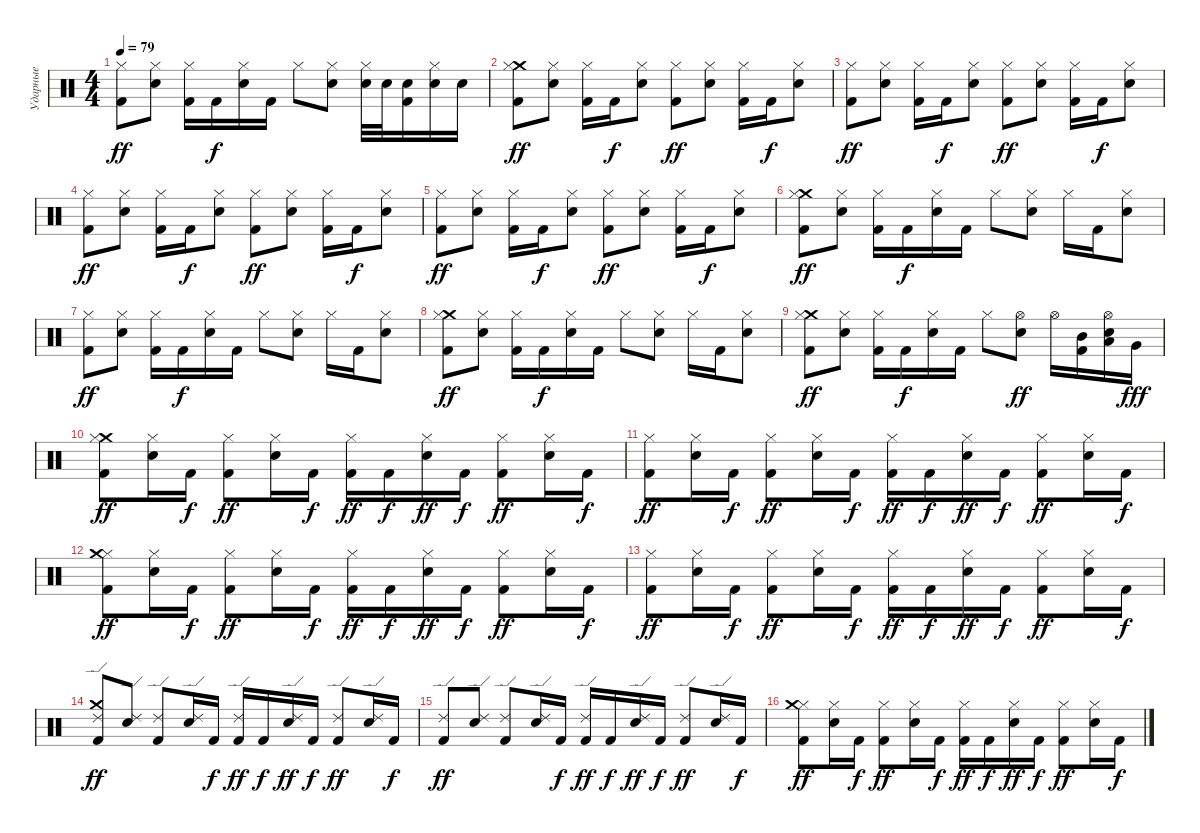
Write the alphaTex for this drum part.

\track ("Ударные" "Ударные") {instrument percussion}
\staff {score}
\articulation defaults
\ts (4 4)
\tempo 79
\clef neutral
\ks c
("Kick (hit) 2" "Hi-Hat (closed)").8{dy ff} ("Electric Snare (hit)" "Hi-Hat (closed)").8 ("Kick (hit) 2" "Hi-Hat (closed)").16 "Kick (hit) 2".16{dy f} ("Electric Snare (hit)" "Hi-Hat (closed)").16 "Kick (hit) 2".16 "Hi-Hat (closed)".8 ("Electric Snare (hit)" "Hi-Hat (closed)").8 ("Electric Snare (hit)" "Hi-Hat (closed)").32 "Electric Snare (hit)".32 ("Kick (hit) 2" "Electric Snare (hit)").16 ("Hi-Hat (closed)" "Electric Snare (hit)").16 "Electric Snare (hit)".16 |
("Kick (hit) 2" "Crash medium (hit)" "Hi-Hat (closed)").8{dy ff} ("Electric Snare (hit)" "Hi-Hat (closed)").8 ("Kick (hit) 2" "Hi-Hat (closed)").16 "Kick (hit) 2".16{dy f} ("Electric Snare (hit)" "Hi-Hat (closed)").8 ("Kick (hit) 2" "Hi-Hat (closed)").8{dy ff} ("Electric Snare (hit)" "Hi-Hat (closed)").8 ("Kick (hit) 2" "Hi-Hat (closed)").16 "Kick (hit) 2".16{dy f} ("Electric Snare (hit)" "Hi-Hat (closed)").8 |
("Kick (hit) 2" "Hi-Hat (closed)").8{dy ff} ("Electric Snare (hit)" "Hi-Hat (closed)").8 ("Kick (hit) 2" "Hi-Hat (closed)").16 "Kick (hit) 2".16{dy f} ("Electric Snare (hit)" "Hi-Hat (closed)").8 ("Kick (hit) 2" "Hi-Hat (closed)").8{dy ff} ("Electric Snare (hit)" "Hi-Hat (closed)").8 ("Kick (hit) 2" "Hi-Hat (closed)").16 "Kick (hit) 2".16{dy f} ("Electric Snare (hit)" "Hi-Hat (closed)").8 |
("Kick (hit) 2" "Hi-Hat (closed)").8{dy ff} ("Electric Snare (hit)" "Hi-Hat (closed)").8 ("Kick (hit) 2" "Hi-Hat (closed)").16 "Kick (hit) 2".16{dy f} ("Electric Snare (hit)" "Hi-Hat (closed)").8 ("Kick (hit) 2" "Hi-Hat (closed)").8{dy ff} ("Electric Snare (hit)" "Hi-Hat (closed)").8 ("Kick (hit) 2" "Hi-Hat (closed)").16 "Kick (hit) 2".16{dy f} ("Electric Snare (hit)" "Hi-Hat (closed)").8 |
("Kick (hit) 2" "Hi-Hat (closed)").8{dy ff} ("Electric Snare (hit)" "Hi-Hat (closed)").8 ("Kick (hit) 2" "Hi-Hat (closed)").16 "Kick (hit) 2".16{dy f} ("Electric Snare (hit)" "Hi-Hat (closed)").8 ("Kick (hit) 2" "Hi-Hat (closed)").8{dy ff} ("Electric Snare (hit)" "Hi-Hat (closed)").8 ("Kick (hit) 2" "Hi-Hat (closed)").16 "Kick (hit) 2".16{dy f} ("Electric Snare (hit)" "Hi-Hat (closed)").8 |
("Kick (hit) 2" "Crash medium (hit)" "Hi-Hat (closed)").8{dy ff} ("Electric Snare (hit)" "Hi-Hat (closed)").8 ("Kick (hit) 2" "Hi-Hat (closed)").16 "Kick (hit) 2".16{dy f} ("Electric Snare (hit)" "Hi-Hat (closed)").16 "Kick (hit) 2".16 "Hi-Hat (closed)".8 ("Electric Snare (hit)" "Hi-Hat (closed)").8 "Hi-Hat (closed)".16 "Kick (hit) 2".16 ("Hi-Hat (closed)" "Electric Snare (hit)").8 |
("Kick (hit) 2" "Hi-Hat (closed)").8{dy ff} ("Electric Snare (hit)" "Hi-Hat (closed)").8 ("Kick (hit) 2" "Hi-Hat (closed)").16 "Kick (hit) 2".16{dy f} ("Electric Snare (hit)" "Hi-Hat (closed)").16 "Kick (hit) 2".16 "Hi-Hat (closed)".8 ("Electric Snare (hit)" "Hi-Hat (closed)").8 "Hi-Hat (closed)".16 "Kick (hit) 2".16 ("Hi-Hat (closed)" "Electric Snare (hit)").8 |
("Kick (hit) 2" "Crash medium (hit)" "Hi-Hat (closed)").8{dy ff} ("Electric Snare (hit)" "Hi-Hat (closed)").8 ("Kick (hit) 2" "Hi-Hat (closed)").16 "Kick (hit) 2".16{dy f} ("Electric Snare (hit)" "Hi-Hat (closed)").16 "Kick (hit) 2".16 "Hi-Hat (closed)".8 ("Electric Snare (hit)" "Hi-Hat (closed)").8 "Hi-Hat (closed)".16 "Kick (hit) 2".16 ("Hi-Hat (closed)" "Electric Snare (hit)").8 |
("Kick (hit) 2" "Crash medium (hit)" "Hi-Hat (closed)").8{dy ff} ("Electric Snare (hit)" "Hi-Hat (closed)").8 ("Kick (hit) 2" "Hi-Hat (closed)").16 "Kick (hit) 2".16{dy f} ("Electric Snare (hit)" "Hi-Hat (closed)").16 "Kick (hit) 2".16 "Hi-Hat (closed)".8 ("Electric Snare (hit)" "Hi-Hat (open)").8{dy ff} "Hi-Hat (open)".16 ("Kick (hit) 2" "Mid Tom (hit)").16 ("Hi-Hat (open)" "Electric Snare (hit)" "Low Tom (hit)").16 "Very Low Tom (hit)".16{dy fff} |
("Kick (hit) 2" "Crash medium (hit)" "Hi-Hat (closed)").8{dy ff} ("Snare (hit) 2" "Hi-Hat (closed)").16 "Kick (hit) 2".16{dy f} ("Kick (hit) 2" "Hi-Hat (closed)").8{dy ff} ("Snare (hit) 2" "Hi-Hat (closed)").16 "Kick (hit) 2".16{dy f} ("Kick (hit) 2" "Hi-Hat (closed)").16{dy ff} "Kick (hit) 2".16{dy f} ("Snare (hit) 2" "Hi-Hat (closed)").16{dy ff} "Kick (hit) 2".16{dy f} ("Kick (hit) 2" "Hi-Hat (closed)").8{dy ff} ("Snare (hit) 2" "Hi-Hat (closed)").16 "Kick (hit) 2".16{dy f} |
("Kick (hit) 2" "Hi-Hat (closed)").8{dy ff} ("Snare (hit) 2" "Hi-Hat (closed)").16 "Kick (hit) 2".16{dy f} ("Kick (hit) 2" "Hi-Hat (closed)").8{dy ff} ("Snare (hit) 2" "Hi-Hat (closed)").16 "Kick (hit) 2".16{dy f} ("Kick (hit) 2" "Hi-Hat (closed)").16{dy ff} "Kick (hit) 2".16{dy f} ("Snare (hit) 2" "Hi-Hat (closed)").16{dy ff} "Kick (hit) 2".16{dy f} ("Kick (hit) 2" "Hi-Hat (closed)").8{dy ff} ("Snare (hit) 2" "Hi-Hat (closed)").16 "Kick (hit) 2".16{dy f} |
("Kick (hit) 2" "Hi-Hat (closed)" "Crash medium (hit)").8{dy ff} ("Snare (hit) 2" "Hi-Hat (closed)").16 "Kick (hit) 2".16{dy f} ("Kick (hit) 2" "Hi-Hat (closed)").8{dy ff} ("Snare (hit) 2" "Hi-Hat (closed)").16 "Kick (hit) 2".16{dy f} ("Kick (hit) 2" "Hi-Hat (closed)").16{dy ff} "Kick (hit) 2".16{dy f} ("Snare (hit) 2" "Hi-Hat (closed)").16{dy ff} "Kick (hit) 2".16{dy f} ("Kick (hit) 2" "Hi-Hat (closed)").8{dy ff} ("Snare (hit) 2" "Hi-Hat (closed)").16 "Kick (hit) 2".16{dy f} |
("Kick (hit) 2" "Hi-Hat (closed)").8{dy ff} ("Snare (hit) 2" "Hi-Hat (closed)").16 "Kick (hit) 2".16{dy f} ("Kick (hit) 2" "Hi-Hat (closed)").8{dy ff} ("Snare (hit) 2" "Hi-Hat (closed)").16 "Kick (hit) 2".16{dy f} ("Kick (hit) 2" "Hi-Hat (closed)").16{dy ff} "Kick (hit) 2".16{dy f} ("Snare (hit) 2" "Hi-Hat (closed)").16{dy ff} "Kick (hit) 2".16{dy f} ("Kick (hit) 2" "Hi-Hat (closed)").8{dy ff} ("Snare (hit) 2" "Hi-Hat (closed)").16 "Kick (hit) 2".16{dy f} |
("Kick (hit) 2" "Ride (edge) 2" "Crash medium (hit)").8{dy ff} ("Snare (hit) 2" "Ride (edge) 2").8 ("Kick (hit) 2" "Ride (edge) 2").8 ("Snare (hit) 2" "Ride (edge) 2").16 "Kick (hit) 2".16{dy f} ("Kick (hit) 2" "Ride (edge) 2").16{dy ff} "Kick (hit) 2".16{dy f} ("Snare (hit) 2" "Ride (edge) 2").16{dy ff} "Kick (hit) 2".16{dy f} ("Kick (hit) 2" "Ride (edge) 2").8{dy ff} ("Snare (hit) 2" "Ride (edge) 2").16 "Kick (hit) 2".16{dy f} |
("Kick (hit) 2" "Ride (edge) 2").8{dy ff} ("Snare (hit) 2" "Ride (edge) 2").8 ("Kick (hit) 2" "Ride (edge) 2").8 ("Snare (hit) 2" "Ride (edge) 2").16 "Kick (hit) 2".16{dy f} ("Kick (hit) 2" "Ride (edge) 2").16{dy ff} "Kick (hit) 2".16{dy f} ("Snare (hit) 2" "Ride (edge) 2").16{dy ff} "Kick (hit) 2".16{dy f} ("Kick (hit) 2" "Ride (edge) 2").8{dy ff} ("Snare (hit) 2" "Ride (edge) 2").16 "Kick (hit) 2".16{dy f} |
("Kick (hit) 2" "Hi-Hat (closed)" "Crash medium (hit)").8{dy ff} ("Snare (hit) 2" "Hi-Hat (closed)").16 "Kick (hit) 2".16{dy f} ("Kick (hit) 2" "Hi-Hat (closed)").8{dy ff} ("Snare (hit) 2" "Hi-Hat (closed)").16 "Kick (hit) 2".16{dy f} ("Kick (hit) 2" "Hi-Hat (closed)").16{dy ff} "Kick (hit) 2".16{dy f} ("Snare (hit) 2" "Hi-Hat (closed)").16{dy ff} "Kick (hit) 2".16{dy f} ("Kick (hit) 2" "Hi-Hat (closed)").8{dy ff} ("Snare (hit) 2" "Hi-Hat (closed)").16 "Kick (hit) 2".16{dy f}
